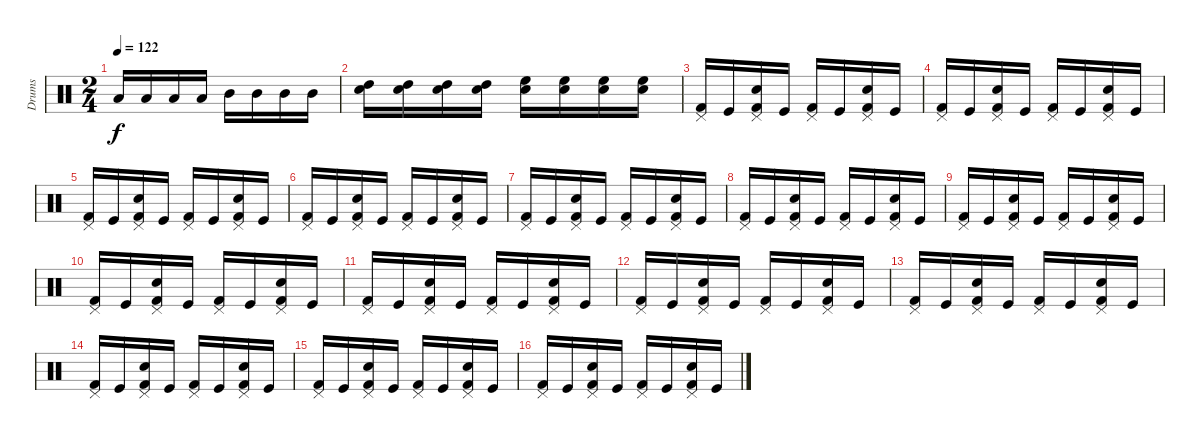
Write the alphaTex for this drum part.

\track ("Drums" "Drums") {instrument percussion}
\staff {score}
\articulation defaults
\ts (2 4)
\tempo 122
\clef neutral
\ks c "Low Tom (hit)".16{dy f} "Low Tom (hit)".16 "Low Tom (hit)".16 "Low Tom (hit)".16 "Mid Tom (hit)".16 "Mid Tom (hit)".16 "Mid Tom (hit)".16 "Mid Tom (hit)".16
|
("High Tom (hit)" "Snare (hit) 2").16 ("High Tom (hit)" "Snare (hit) 2").16 ("High Tom (hit)" "Snare (hit) 2").16 ("High Tom (hit)" "Snare (hit) 2").16 ("High Floor Tom (hit)" "Snare (hit) 2").16 ("High Floor Tom (hit)" "Snare (hit) 2").16 ("High Floor Tom (hit)" "Snare (hit) 2").16 ("High Floor Tom (hit)" "Snare (hit) 2").16 |
("Pedal Hi-Hat (hit)" "Kick (hit) 2").16 "Kick (hit)".16 ("Pedal Hi-Hat (hit)" "Snare (hit) 2" "Kick (hit) 2").16 "Kick (hit)".16 ("Pedal Hi-Hat (hit)" "Kick (hit) 2").16 "Kick (hit)".16 ("Pedal Hi-Hat (hit)" "Snare (hit) 2" "Kick (hit) 2").16 "Kick (hit)".16 |
("Pedal Hi-Hat (hit)" "Kick (hit) 2").16 "Kick (hit)".16 ("Pedal Hi-Hat (hit)" "Snare (hit) 2" "Kick (hit) 2").16 "Kick (hit)".16 ("Pedal Hi-Hat (hit)" "Kick (hit) 2").16 "Kick (hit)".16 ("Pedal Hi-Hat (hit)" "Snare (hit) 2" "Kick (hit) 2").16 "Kick (hit)".16 |
("Pedal Hi-Hat (hit)" "Kick (hit) 2").16 "Kick (hit)".16 ("Pedal Hi-Hat (hit)" "Snare (hit) 2" "Kick (hit) 2").16 "Kick (hit)".16 ("Pedal Hi-Hat (hit)" "Kick (hit) 2").16 "Kick (hit)".16 ("Pedal Hi-Hat (hit)" "Snare (hit) 2" "Kick (hit) 2").16 "Kick (hit)".16 |
("Pedal Hi-Hat (hit)" "Kick (hit) 2").16 "Kick (hit)".16 ("Pedal Hi-Hat (hit)" "Snare (hit) 2" "Kick (hit) 2").16 "Kick (hit)".16 ("Pedal Hi-Hat (hit)" "Kick (hit) 2").16 "Kick (hit)".16 ("Pedal Hi-Hat (hit)" "Snare (hit) 2" "Kick (hit) 2").16 "Kick (hit)".16 |
("Pedal Hi-Hat (hit)" "Kick (hit) 2").16 "Kick (hit)".16 ("Pedal Hi-Hat (hit)" "Snare (hit) 2" "Kick (hit) 2").16 "Kick (hit)".16 ("Pedal Hi-Hat (hit)" "Kick (hit) 2").16 "Kick (hit)".16 ("Pedal Hi-Hat (hit)" "Snare (hit) 2" "Kick (hit) 2").16 "Kick (hit)".16 |
("Pedal Hi-Hat (hit)" "Kick (hit) 2").16 "Kick (hit)".16 ("Pedal Hi-Hat (hit)" "Snare (hit) 2" "Kick (hit) 2").16 "Kick (hit)".16 ("Pedal Hi-Hat (hit)" "Kick (hit) 2").16 "Kick (hit)".16 ("Pedal Hi-Hat (hit)" "Snare (hit) 2" "Kick (hit) 2").16 "Kick (hit)".16 |
("Pedal Hi-Hat (hit)" "Kick (hit) 2").16 "Kick (hit)".16 ("Pedal Hi-Hat (hit)" "Snare (hit) 2" "Kick (hit) 2").16 "Kick (hit)".16 ("Pedal Hi-Hat (hit)" "Kick (hit) 2").16 "Kick (hit)".16 ("Pedal Hi-Hat (hit)" "Snare (hit) 2" "Kick (hit) 2").16 "Kick (hit)".16 |
("Pedal Hi-Hat (hit)" "Kick (hit) 2").16 "Kick (hit)".16 ("Pedal Hi-Hat (hit)" "Snare (hit) 2" "Kick (hit) 2").16 "Kick (hit)".16 ("Pedal Hi-Hat (hit)" "Kick (hit) 2").16 "Kick (hit)".16 ("Pedal Hi-Hat (hit)" "Snare (hit) 2" "Kick (hit) 2").16 "Kick (hit)".16 |
("Pedal Hi-Hat (hit)" "Kick (hit) 2").16 "Kick (hit)".16 ("Pedal Hi-Hat (hit)" "Snare (hit) 2" "Kick (hit) 2").16 "Kick (hit)".16 ("Pedal Hi-Hat (hit)" "Kick (hit) 2").16 "Kick (hit)".16 ("Pedal Hi-Hat (hit)" "Snare (hit) 2" "Kick (hit) 2").16 "Kick (hit)".16 |
("Pedal Hi-Hat (hit)" "Kick (hit) 2").16 "Kick (hit)".16 ("Pedal Hi-Hat (hit)" "Snare (hit) 2" "Kick (hit) 2").16 "Kick (hit)".16 ("Pedal Hi-Hat (hit)" "Kick (hit) 2").16 "Kick (hit)".16 ("Pedal Hi-Hat (hit)" "Snare (hit) 2" "Kick (hit) 2").16 "Kick (hit)".16 |
("Pedal Hi-Hat (hit)" "Kick (hit) 2").16 "Kick (hit)".16 ("Pedal Hi-Hat (hit)" "Snare (hit) 2" "Kick (hit) 2").16 "Kick (hit)".16 ("Pedal Hi-Hat (hit)" "Kick (hit) 2").16 "Kick (hit)".16 ("Pedal Hi-Hat (hit)" "Snare (hit) 2" "Kick (hit) 2").16 "Kick (hit)".16 |
("Pedal Hi-Hat (hit)" "Kick (hit) 2").16 "Kick (hit)".16 ("Pedal Hi-Hat (hit)" "Snare (hit) 2" "Kick (hit) 2").16 "Kick (hit)".16 ("Pedal Hi-Hat (hit)" "Kick (hit) 2").16 "Kick (hit)".16 ("Pedal Hi-Hat (hit)" "Snare (hit) 2" "Kick (hit) 2").16 "Kick (hit)".16 |
("Pedal Hi-Hat (hit)" "Kick (hit) 2").16 "Kick (hit)".16 ("Pedal Hi-Hat (hit)" "Snare (hit) 2" "Kick (hit) 2").16 "Kick (hit)".16 ("Pedal Hi-Hat (hit)" "Kick (hit) 2").16 "Kick (hit)".16 ("Pedal Hi-Hat (hit)" "Snare (hit) 2" "Kick (hit) 2").16 "Kick (hit)".16 |
("Pedal Hi-Hat (hit)" "Kick (hit) 2").16 "Kick (hit)".16 ("Pedal Hi-Hat (hit)" "Snare (hit) 2" "Kick (hit) 2").16 "Kick (hit)".16 ("Pedal Hi-Hat (hit)" "Kick (hit) 2").16 "Kick (hit)".16 ("Pedal Hi-Hat (hit)" "Snare (hit) 2" "Kick (hit) 2").16 "Kick (hit)".16
